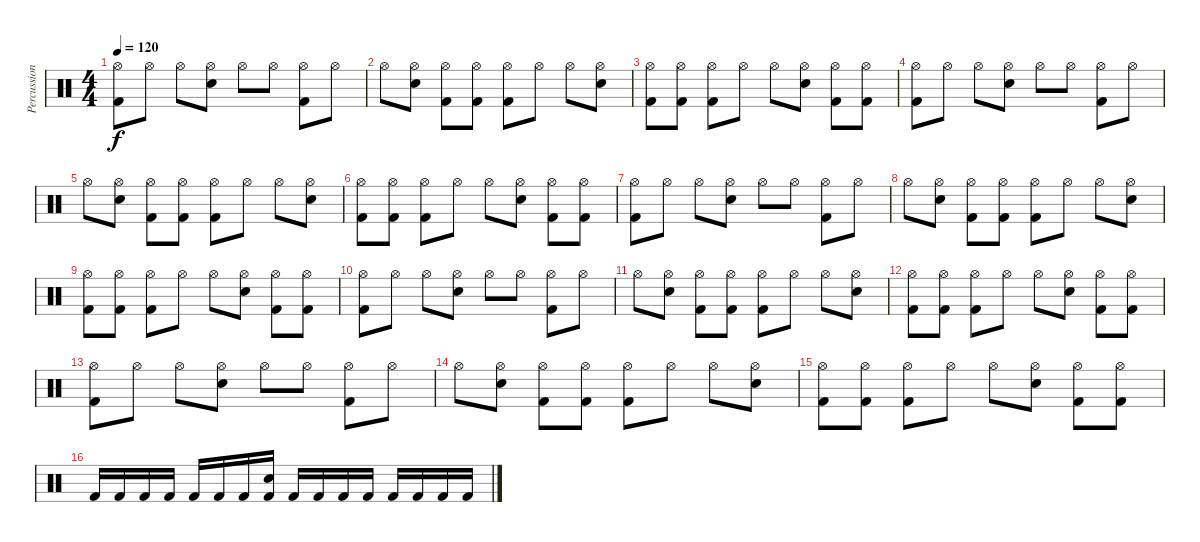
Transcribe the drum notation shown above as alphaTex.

\track ("Percussion" "Percussion") {instrument percussion}
\staff {score}
\articulation defaults
\ts (4 4)
\tempo 120
\clef neutral
\ks c
("Hi-Hat (open)" "Kick (hit) 2").8{dy f} "Hi-Hat (open)".8 "Hi-Hat (open)".8 ("Hi-Hat (open)" "Electric Snare (hit)").8 "Hi-Hat (open)".8 "Hi-Hat (open)".8 ("Hi-Hat (open)" "Kick (hit) 2").8 "Hi-Hat (open)".8 |
"Hi-Hat (open)".8 ("Hi-Hat (open)" "Electric Snare (hit)").8 ("Hi-Hat (open)" "Kick (hit) 2").8 ("Hi-Hat (open)" "Kick (hit) 2").8 ("Hi-Hat (open)" "Kick (hit) 2").8 "Hi-Hat (open)".8 "Hi-Hat (open)".8 ("Hi-Hat (open)" "Electric Snare (hit)").8 |
("Hi-Hat (open)" "Kick (hit) 2").8 ("Hi-Hat (open)" "Kick (hit) 2").8 ("Hi-Hat (open)" "Kick (hit) 2").8 "Hi-Hat (open)".8 "Hi-Hat (open)".8 ("Hi-Hat (open)" "Electric Snare (hit)").8 ("Hi-Hat (open)" "Kick (hit) 2").8 ("Hi-Hat (open)" "Kick (hit) 2").8 |
("Hi-Hat (open)" "Kick (hit) 2").8 "Hi-Hat (open)".8 "Hi-Hat (open)".8 ("Hi-Hat (open)" "Electric Snare (hit)").8 "Hi-Hat (open)".8 "Hi-Hat (open)".8 ("Hi-Hat (open)" "Kick (hit) 2").8 "Hi-Hat (open)".8 |
"Hi-Hat (open)".8 ("Hi-Hat (open)" "Electric Snare (hit)").8 ("Hi-Hat (open)" "Kick (hit) 2").8 ("Hi-Hat (open)" "Kick (hit) 2").8 ("Hi-Hat (open)" "Kick (hit) 2").8 "Hi-Hat (open)".8 "Hi-Hat (open)".8 ("Hi-Hat (open)" "Electric Snare (hit)").8 |
("Hi-Hat (open)" "Kick (hit) 2").8 ("Hi-Hat (open)" "Kick (hit) 2").8 ("Hi-Hat (open)" "Kick (hit) 2").8 "Hi-Hat (open)".8 "Hi-Hat (open)".8 ("Hi-Hat (open)" "Electric Snare (hit)").8 ("Hi-Hat (open)" "Kick (hit) 2").8 ("Hi-Hat (open)" "Kick (hit) 2").8 |
("Hi-Hat (open)" "Kick (hit) 2").8 "Hi-Hat (open)".8 "Hi-Hat (open)".8 ("Hi-Hat (open)" "Electric Snare (hit)").8 "Hi-Hat (open)".8 "Hi-Hat (open)".8 ("Hi-Hat (open)" "Kick (hit) 2").8 "Hi-Hat (open)".8 |
"Hi-Hat (open)".8 ("Hi-Hat (open)" "Electric Snare (hit)").8 ("Hi-Hat (open)" "Kick (hit) 2").8 ("Hi-Hat (open)" "Kick (hit) 2").8 ("Hi-Hat (open)" "Kick (hit) 2").8 "Hi-Hat (open)".8 "Hi-Hat (open)".8 ("Hi-Hat (open)" "Electric Snare (hit)").8 |
("Hi-Hat (open)" "Kick (hit) 2").8 ("Hi-Hat (open)" "Kick (hit) 2").8 ("Hi-Hat (open)" "Kick (hit) 2").8 "Hi-Hat (open)".8 "Hi-Hat (open)".8 ("Hi-Hat (open)" "Electric Snare (hit)").8 ("Hi-Hat (open)" "Kick (hit) 2").8 ("Hi-Hat (open)" "Kick (hit) 2").8 |
("Hi-Hat (open)" "Kick (hit) 2").8 "Hi-Hat (open)".8 "Hi-Hat (open)".8 ("Hi-Hat (open)" "Electric Snare (hit)").8 "Hi-Hat (open)".8 "Hi-Hat (open)".8 ("Hi-Hat (open)" "Kick (hit) 2").8 "Hi-Hat (open)".8 |
"Hi-Hat (open)".8 ("Hi-Hat (open)" "Electric Snare (hit)").8 ("Hi-Hat (open)" "Kick (hit) 2").8 ("Hi-Hat (open)" "Kick (hit) 2").8 ("Hi-Hat (open)" "Kick (hit) 2").8 "Hi-Hat (open)".8 "Hi-Hat (open)".8 ("Hi-Hat (open)" "Electric Snare (hit)").8 |
("Hi-Hat (open)" "Kick (hit) 2").8 ("Hi-Hat (open)" "Kick (hit) 2").8 ("Hi-Hat (open)" "Kick (hit) 2").8 "Hi-Hat (open)".8 "Hi-Hat (open)".8 ("Hi-Hat (open)" "Electric Snare (hit)").8 ("Hi-Hat (open)" "Kick (hit) 2").8 ("Hi-Hat (open)" "Kick (hit) 2").8 |
("Hi-Hat (open)" "Kick (hit) 2").8 "Hi-Hat (open)".8 "Hi-Hat (open)".8 ("Hi-Hat (open)" "Electric Snare (hit)").8 "Hi-Hat (open)".8 "Hi-Hat (open)".8 ("Hi-Hat (open)" "Kick (hit) 2").8 "Hi-Hat (open)".8 |
"Hi-Hat (open)".8 ("Hi-Hat (open)" "Electric Snare (hit)").8 ("Hi-Hat (open)" "Kick (hit) 2").8 ("Hi-Hat (open)" "Kick (hit) 2").8 ("Hi-Hat (open)" "Kick (hit) 2").8 "Hi-Hat (open)".8 "Hi-Hat (open)".8 ("Hi-Hat (open)" "Electric Snare (hit)").8 |
("Hi-Hat (open)" "Kick (hit) 2").8 ("Hi-Hat (open)" "Kick (hit) 2").8 ("Hi-Hat (open)" "Kick (hit) 2").8 "Hi-Hat (open)".8 "Hi-Hat (open)".8 ("Hi-Hat (open)" "Electric Snare (hit)").8 ("Hi-Hat (open)" "Kick (hit) 2").8 ("Hi-Hat (open)" "Kick (hit) 2").8 |
"Kick (hit) 2".16 "Kick (hit) 2".16 "Kick (hit) 2".16 "Kick (hit) 2".16 "Kick (hit) 2".16 "Kick (hit) 2".16 "Kick (hit) 2".16 ("Electric Snare (hit)" "Kick (hit) 2").16 "Kick (hit) 2".16 "Kick (hit) 2".16 "Kick (hit) 2".16 "Kick (hit) 2".16 "Kick (hit) 2".16 "Kick (hit) 2".16 "Kick (hit) 2".16 "Kick (hit) 2".16
